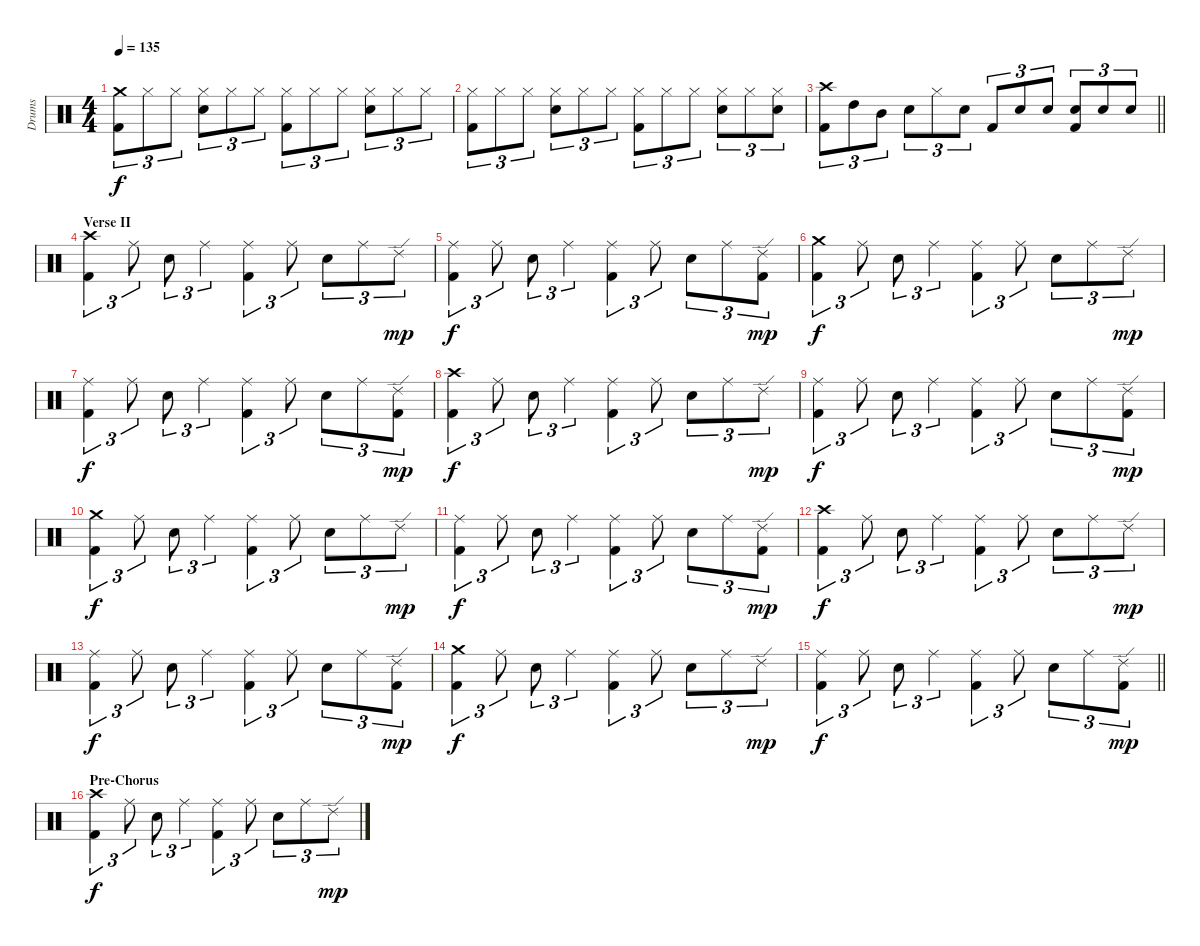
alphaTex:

\track ("Drums" "Drums") {instrument percussion}
\staff {score}
\articulation defaults
\ts (4 4)
\tempo 135
\clef neutral
\ks c
("Crash medium (hit)" "Kick (hit) 2").8{tu (3 2) dy f} "Hi-Hat (closed)".8{tu (3 2)} "Hi-Hat (closed)".8{tu (3 2)} ("Hi-Hat (closed)" "Snare (hit) 2").8{tu (3 2)} "Hi-Hat (closed)".8{tu (3 2)} "Hi-Hat (closed)".8{tu (3 2)} ("Hi-Hat (closed)" "Kick (hit) 2").8{tu (3 2)} "Hi-Hat (closed)".8{tu (3 2)} "Hi-Hat (closed)".8{tu (3 2)} ("Hi-Hat (closed)" "Snare (hit) 2").8{tu (3 2)} "Hi-Hat (closed)".8{tu (3 2)} "Hi-Hat (closed)".8{tu (3 2)} |
("Hi-Hat (closed)" "Kick (hit) 2").8{tu (3 2)} "Hi-Hat (closed)".8{tu (3 2)} "Hi-Hat (closed)".8{tu (3 2)} ("Hi-Hat (closed)" "Snare (hit) 2").8{tu (3 2)} "Hi-Hat (closed)".8{tu (3 2)} "Hi-Hat (closed)".8{tu (3 2)} ("Hi-Hat (closed)" "Kick (hit) 2").8{tu (3 2)} "Hi-Hat (closed)".8{tu (3 2)} "Hi-Hat (closed)".8{tu (3 2)} ("Hi-Hat (closed)" "Snare (hit) 2").8{tu (3 2)} "Hi-Hat (closed)".8{tu (3 2)} ("Hi-Hat (closed)" "Snare (hit) 2").8{tu (3 2)} |
\barLineRight lightlight
("Crash high (hit)" "Kick (hit) 2").8{tu (3 2)} "High Tom (hit)".8{tu (3 2)} "Mid Tom (hit)".8{tu (3 2)} "Snare (hit) 2".8{tu (3 2)} "Hi-Hat (closed)".8{tu (3 2)} "Snare (hit) 2".8{tu (3 2)} "Kick (hit) 2".8{tu (3 2)} "Snare (hit) 2".8{tu (3 2)} "Snare (hit) 2".8{tu (3 2)} ("Snare (hit) 2" "Kick (hit) 2").8{tu (3 2)} "Snare (hit) 2".8{tu (3 2)} "Snare (hit) 2".8{tu (3 2)} |
\section ("" "Verse II")
("Crash high (hit)" "Kick (hit) 2").4{tu (3 2)} "Ride (middle)".8{tu (3 2)} "Snare (hit) 2".8{tu (3 2)} "Ride (middle)".4{tu (3 2)} ("Ride (middle)" "Kick (hit) 2").4{tu (3 2)} "Ride (middle)".8{tu (3 2)} "Snare (hit) 2".8{tu (3 2)} "Ride (middle)".8{tu (3 2)} "Ride (edge) 2".8{tu (3 2) dy mp} |
("Ride (middle)" "Kick (hit) 2").4{tu (3 2) dy f} "Ride (middle)".8{tu (3 2)} "Snare (hit) 2".8{tu (3 2)} "Ride (middle)".4{tu (3 2)} ("Ride (middle)" "Kick (hit) 2").4{tu (3 2)} "Ride (middle)".8{tu (3 2)} "Snare (hit) 2".8{tu (3 2)} "Ride (middle)".8{tu (3 2)} ("Ride (edge) 2" "Kick (hit) 2").8{tu (3 2) dy mp} |
("Crash medium (hit)" "Kick (hit) 2").4{tu (3 2) dy f} "Ride (middle)".8{tu (3 2)} "Snare (hit) 2".8{tu (3 2)} "Ride (middle)".4{tu (3 2)} ("Ride (middle)" "Kick (hit) 2").4{tu (3 2)} "Ride (middle)".8{tu (3 2)} "Snare (hit) 2".8{tu (3 2)} "Ride (middle)".8{tu (3 2)} "Ride (edge) 2".8{tu (3 2) dy mp} |
("Ride (middle)" "Kick (hit) 2").4{tu (3 2) dy f} "Ride (middle)".8{tu (3 2)} "Snare (hit) 2".8{tu (3 2)} "Ride (middle)".4{tu (3 2)} ("Ride (middle)" "Kick (hit) 2").4{tu (3 2)} "Ride (middle)".8{tu (3 2)} "Snare (hit) 2".8{tu (3 2)} "Ride (middle)".8{tu (3 2)} ("Ride (edge) 2" "Kick (hit) 2").8{tu (3 2) dy mp} |
("Crash high (hit)" "Kick (hit) 2").4{tu (3 2) dy f} "Ride (middle)".8{tu (3 2)} "Snare (hit) 2".8{tu (3 2)} "Ride (middle)".4{tu (3 2)} ("Ride (middle)" "Kick (hit) 2").4{tu (3 2)} "Ride (middle)".8{tu (3 2)} "Snare (hit) 2".8{tu (3 2)} "Ride (middle)".8{tu (3 2)} "Ride (edge) 2".8{tu (3 2) dy mp} |
("Ride (middle)" "Kick (hit) 2").4{tu (3 2) dy f} "Ride (middle)".8{tu (3 2)} "Snare (hit) 2".8{tu (3 2)} "Ride (middle)".4{tu (3 2)} ("Ride (middle)" "Kick (hit) 2").4{tu (3 2)} "Ride (middle)".8{tu (3 2)} "Snare (hit) 2".8{tu (3 2)} "Ride (middle)".8{tu (3 2)} ("Ride (edge) 2" "Kick (hit) 2").8{tu (3 2) dy mp} |
("Crash medium (hit)" "Kick (hit) 2").4{tu (3 2) dy f} "Ride (middle)".8{tu (3 2)} "Snare (hit) 2".8{tu (3 2)} "Ride (middle)".4{tu (3 2)} ("Ride (middle)" "Kick (hit) 2").4{tu (3 2)} "Ride (middle)".8{tu (3 2)} "Snare (hit) 2".8{tu (3 2)} "Ride (middle)".8{tu (3 2)} "Ride (edge) 2".8{tu (3 2) dy mp} |
("Ride (middle)" "Kick (hit) 2").4{tu (3 2) dy f} "Ride (middle)".8{tu (3 2)} "Snare (hit) 2".8{tu (3 2)} "Ride (middle)".4{tu (3 2)} ("Ride (middle)" "Kick (hit) 2").4{tu (3 2)} "Ride (middle)".8{tu (3 2)} "Snare (hit) 2".8{tu (3 2)} "Ride (middle)".8{tu (3 2)} ("Ride (edge) 2" "Kick (hit) 2").8{tu (3 2) dy mp} |
("Crash high (hit)" "Kick (hit) 2").4{tu (3 2) dy f} "Ride (middle)".8{tu (3 2)} "Snare (hit) 2".8{tu (3 2)} "Ride (middle)".4{tu (3 2)} ("Ride (middle)" "Kick (hit) 2").4{tu (3 2)} "Ride (middle)".8{tu (3 2)} "Snare (hit) 2".8{tu (3 2)} "Ride (middle)".8{tu (3 2)} "Ride (edge) 2".8{tu (3 2) dy mp} |
("Ride (middle)" "Kick (hit) 2").4{tu (3 2) dy f} "Ride (middle)".8{tu (3 2)} "Snare (hit) 2".8{tu (3 2)} "Ride (middle)".4{tu (3 2)} ("Ride (middle)" "Kick (hit) 2").4{tu (3 2)} "Ride (middle)".8{tu (3 2)} "Snare (hit) 2".8{tu (3 2)} "Ride (middle)".8{tu (3 2)} ("Ride (edge) 2" "Kick (hit) 2").8{tu (3 2) dy mp} |
("Crash medium (hit)" "Kick (hit) 2").4{tu (3 2) dy f} "Ride (middle)".8{tu (3 2)} "Snare (hit) 2".8{tu (3 2)} "Ride (middle)".4{tu (3 2)} ("Ride (middle)" "Kick (hit) 2").4{tu (3 2)} "Ride (middle)".8{tu (3 2)} "Snare (hit) 2".8{tu (3 2)} "Ride (middle)".8{tu (3 2)} "Ride (edge) 2".8{tu (3 2) dy mp} |
\barLineRight lightlight
("Ride (middle)" "Kick (hit) 2").4{tu (3 2) dy f} "Ride (middle)".8{tu (3 2)} "Snare (hit) 2".8{tu (3 2)} "Ride (middle)".4{tu (3 2)} ("Ride (middle)" "Kick (hit) 2").4{tu (3 2)} "Ride (middle)".8{tu (3 2)} "Snare (hit) 2".8{tu (3 2)} "Ride (middle)".8{tu (3 2)} ("Ride (edge) 2" "Kick (hit) 2").8{tu (3 2) dy mp} |
\section ("" "Pre-Chorus")
("Crash high (hit)" "Kick (hit) 2").4{tu (3 2) dy f} "Ride (middle)".8{tu (3 2)} "Snare (hit) 2".8{tu (3 2)} "Ride (middle)".4{tu (3 2)} ("Ride (middle)" "Kick (hit) 2").4{tu (3 2)} "Ride (middle)".8{tu (3 2)} "Snare (hit) 2".8{tu (3 2)} "Ride (middle)".8{tu (3 2)} "Ride (edge) 2".8{tu (3 2) dy mp}
